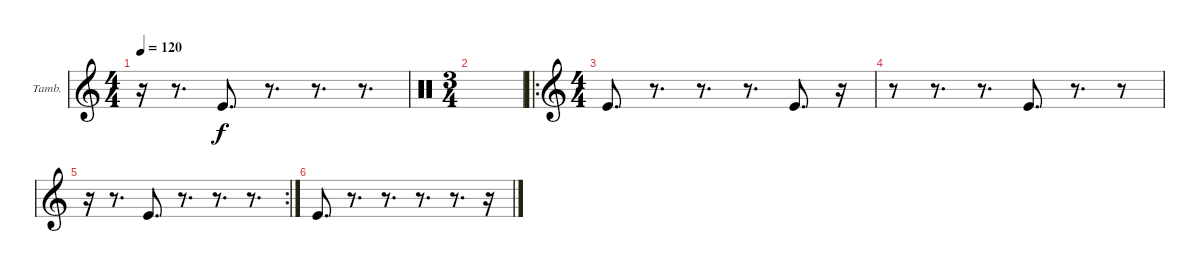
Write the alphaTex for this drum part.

\defaultSystemsLayout 4
\bracketExtendMode groupsimilarinstruments
\firstSystemTrackNameOrientation horizontal
\otherSystemsTrackNameOrientation horizontal
\track ("Tambourine" "Tamb.") {instrument percussion}
\staff {score}
\articulation defaults
\ts (4 4)
\tempo 120
\clef g2
\ks c
r.16{dy f} r.8{d} "Kick (hit)".8{d} r.8{d} r.8{d} r.8{d} |
\ts (3 4)
\clef neutral
|
\ro
\ts (4 4)
\clef g2 "Kick (hit)".8{d}
r.8{d} r.8{d} r.8{d} "Kick (hit)".8{d} r.16 |
r.8 r.8{d} r.8{d} "Kick (hit)".8{d} r.8{d} r.8 |
\rc 2
r.16 r.8{d} "Kick (hit)".8{d} r.8{d} r.8{d} r.8{d} |
"Kick (hit)".8{d} r.8{d} r.8{d} r.8{d} r.8{d} r.16
